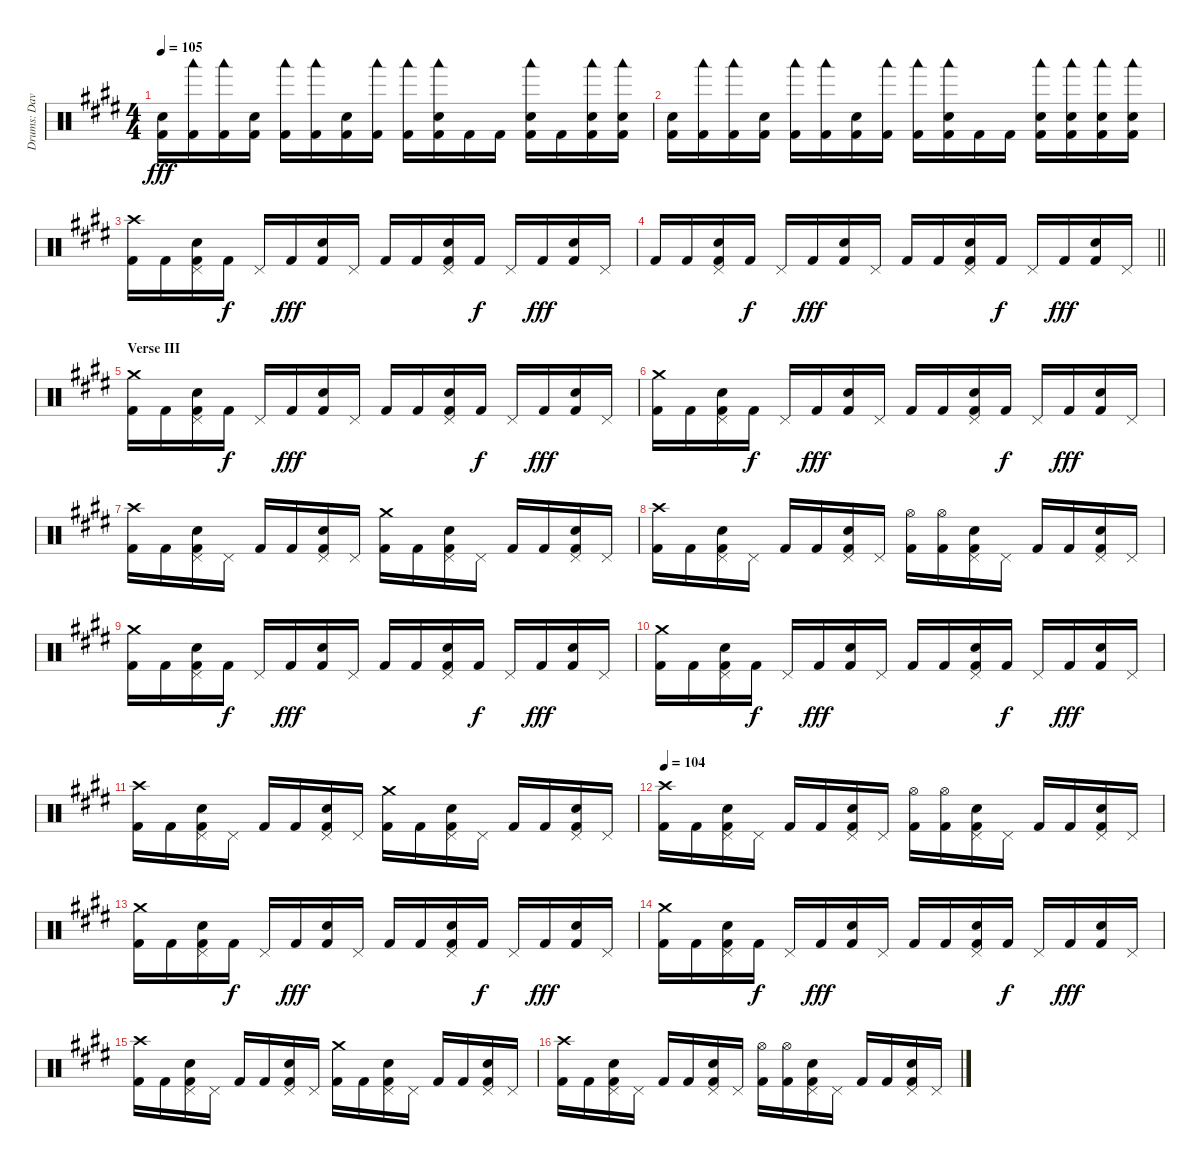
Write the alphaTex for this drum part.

\track ("Drums: Dave" "Drums: Dav") {instrument percussion}
\staff {score}
\articulation defaults
\ts (4 4)
\tempo 105
\clef neutral
\ks e
("Snare (hit) 2" "Kick (hit) 2").16{dy fff} ("Woodblock low (hit)" "Kick (hit) 2").16 ("Woodblock low (hit)" "Kick (hit) 2").16 ("Snare (hit) 2" "Kick (hit) 2").16 ("Woodblock low (hit)" "Kick (hit) 2").16 ("Woodblock low (hit)" "Kick (hit) 2").16 ("Snare (hit) 2" "Kick (hit) 2").16 ("Woodblock low (hit)" "Kick (hit) 2").16 ("Woodblock low (hit)" "Kick (hit) 2").16 ("Woodblock low (hit)" "Snare (hit) 2" "Kick (hit) 2").16 "Kick (hit) 2".16 "Kick (hit) 2".16 ("Woodblock low (hit)" "Snare (hit) 2" "Kick (hit) 2").16 "Kick (hit) 2".16 ("Woodblock low (hit)" "Snare (hit) 2" "Kick (hit) 2").16 ("Woodblock low (hit)" "Snare (hit) 2" "Kick (hit) 2").16 |
("Snare (hit) 2" "Kick (hit) 2").16 ("Woodblock low (hit)" "Kick (hit) 2").16 ("Woodblock low (hit)" "Kick (hit) 2").16 ("Snare (hit) 2" "Kick (hit) 2").16 ("Woodblock low (hit)" "Kick (hit) 2").16 ("Woodblock low (hit)" "Kick (hit) 2").16 ("Snare (hit) 2" "Kick (hit) 2").16 ("Woodblock low (hit)" "Kick (hit) 2").16 ("Woodblock low (hit)" "Kick (hit) 2").16 ("Woodblock low (hit)" "Snare (hit) 2" "Kick (hit) 2").16 "Kick (hit) 2".16 "Kick (hit) 2".16 ("Woodblock low (hit)" "Snare (hit) 2" "Kick (hit) 2").16 ("Woodblock low (hit)" "Snare (hit) 2" "Kick (hit) 2").16 ("Woodblock low (hit)" "Snare (hit) 2" "Kick (hit) 2").16 ("Woodblock low (hit)" "Snare (hit) 2" "Kick (hit) 2").16 |
("Crash high (hit)" "Kick (hit) 2").16 "Kick (hit) 2".16 ("Pedal Hi-Hat (hit)" "Snare (hit) 2" "Kick (hit) 2").16 "Kick (hit) 2".16{dy f} "Pedal Hi-Hat (hit)".16 "Kick (hit) 2".16{dy fff} ("Snare (hit) 2" "Kick (hit) 2").16 "Pedal Hi-Hat (hit)".16 "Kick (hit) 2".16 "Kick (hit) 2".16 ("Pedal Hi-Hat (hit)" "Snare (hit) 2" "Kick (hit) 2").16 "Kick (hit) 2".16{dy f} "Pedal Hi-Hat (hit)".16 "Kick (hit) 2".16{dy fff} ("Snare (hit) 2" "Kick (hit) 2").16 "Pedal Hi-Hat (hit)".16 |
\barLineRight lightlight "Kick (hit) 2".16 "Kick (hit) 2".16
("Pedal Hi-Hat (hit)" "Snare (hit) 2" "Kick (hit) 2").16 "Kick (hit) 2".16{dy f} "Pedal Hi-Hat (hit)".16 "Kick (hit) 2".16{dy fff} ("Snare (hit) 2" "Kick (hit) 2").16 "Pedal Hi-Hat (hit)".16 "Kick (hit) 2".16 "Kick (hit) 2".16 ("Pedal Hi-Hat (hit)" "Snare (hit) 2" "Kick (hit) 2").16 "Kick (hit) 2".16{dy f} "Pedal Hi-Hat (hit)".16 "Kick (hit) 2".16{dy fff} ("Snare (hit) 2" "Kick (hit) 2").16 "Pedal Hi-Hat (hit)".16 |
\section ("" "Verse III")
("Crash medium (hit)" "Kick (hit) 2").16 "Kick (hit) 2".16 ("Pedal Hi-Hat (hit)" "Snare (hit) 2" "Kick (hit) 2").16 "Kick (hit) 2".16{dy f} "Pedal Hi-Hat (hit)".16 "Kick (hit) 2".16{dy fff} ("Snare (hit) 2" "Kick (hit) 2").16 "Pedal Hi-Hat (hit)".16 "Kick (hit) 2".16 "Kick (hit) 2".16 ("Pedal Hi-Hat (hit)" "Snare (hit) 2" "Kick (hit) 2").16 "Kick (hit) 2".16{dy f} "Pedal Hi-Hat (hit)".16 "Kick (hit) 2".16{dy fff} ("Snare (hit) 2" "Kick (hit) 2").16 "Pedal Hi-Hat (hit)".16 |
("Crash medium (hit)" "Kick (hit) 2").16 "Kick (hit) 2".16 ("Pedal Hi-Hat (hit)" "Snare (hit) 2" "Kick (hit) 2").16 "Kick (hit) 2".16{dy f} "Pedal Hi-Hat (hit)".16 "Kick (hit) 2".16{dy fff} ("Snare (hit) 2" "Kick (hit) 2").16 "Pedal Hi-Hat (hit)".16 "Kick (hit) 2".16 "Kick (hit) 2".16 ("Pedal Hi-Hat (hit)" "Snare (hit) 2" "Kick (hit) 2").16 "Kick (hit) 2".16{dy f} "Pedal Hi-Hat (hit)".16 "Kick (hit) 2".16{dy fff} ("Snare (hit) 2" "Kick (hit) 2").16 "Pedal Hi-Hat (hit)".16 |
("Crash high (hit)" "Kick (hit) 2").16 "Kick (hit) 2".16 ("Pedal Hi-Hat (hit)" "Snare (hit) 2" "Kick (hit) 2").16 "Pedal Hi-Hat (hit)".16 "Kick (hit) 2".16 "Kick (hit) 2".16 ("Pedal Hi-Hat (hit)" "Snare (hit) 2" "Kick (hit) 2").16 "Pedal Hi-Hat (hit)".16 ("Crash medium (hit)" "Kick (hit) 2").16 "Kick (hit) 2".16 ("Pedal Hi-Hat (hit)" "Snare (hit) 2" "Kick (hit) 2").16 "Pedal Hi-Hat (hit)".16 "Kick (hit) 2".16 "Kick (hit) 2".16 ("Pedal Hi-Hat (hit)" "Snare (hit) 2" "Kick (hit) 2").16 "Pedal Hi-Hat (hit)".16 |
("Crash high (hit)" "Kick (hit) 2").16 "Kick (hit) 2".16 ("Pedal Hi-Hat (hit)" "Snare (hit) 2" "Kick (hit) 2").16 "Pedal Hi-Hat (hit)".16 "Kick (hit) 2".16 "Kick (hit) 2".16 ("Pedal Hi-Hat (hit)" "Snare (hit) 2" "Kick (hit) 2").16 "Pedal Hi-Hat (hit)".16 ("Hi-Hat (open)" "Kick (hit) 2").16 ("Hi-Hat (open)" "Kick (hit) 2").16 ("Pedal Hi-Hat (hit)" "Snare (hit) 2" "Kick (hit) 2").16 "Pedal Hi-Hat (hit)".16 "Kick (hit) 2".16 "Kick (hit) 2".16 ("Pedal Hi-Hat (hit)" "Snare (hit) 2" "Kick (hit) 2").16 "Pedal Hi-Hat (hit)".16 |
("Crash medium (hit)" "Kick (hit) 2").16 "Kick (hit) 2".16 ("Pedal Hi-Hat (hit)" "Snare (hit) 2" "Kick (hit) 2").16 "Kick (hit) 2".16{dy f} "Pedal Hi-Hat (hit)".16 "Kick (hit) 2".16{dy fff} ("Snare (hit) 2" "Kick (hit) 2").16 "Pedal Hi-Hat (hit)".16 "Kick (hit) 2".16 "Kick (hit) 2".16 ("Pedal Hi-Hat (hit)" "Snare (hit) 2" "Kick (hit) 2").16 "Kick (hit) 2".16{dy f} "Pedal Hi-Hat (hit)".16 "Kick (hit) 2".16{dy fff} ("Snare (hit) 2" "Kick (hit) 2").16 "Pedal Hi-Hat (hit)".16 |
("Crash medium (hit)" "Kick (hit) 2").16 "Kick (hit) 2".16 ("Pedal Hi-Hat (hit)" "Snare (hit) 2" "Kick (hit) 2").16 "Kick (hit) 2".16{dy f} "Pedal Hi-Hat (hit)".16 "Kick (hit) 2".16{dy fff} ("Snare (hit) 2" "Kick (hit) 2").16 "Pedal Hi-Hat (hit)".16 "Kick (hit) 2".16 "Kick (hit) 2".16 ("Pedal Hi-Hat (hit)" "Snare (hit) 2" "Kick (hit) 2").16 "Kick (hit) 2".16{dy f} "Pedal Hi-Hat (hit)".16 "Kick (hit) 2".16{dy fff} ("Snare (hit) 2" "Kick (hit) 2").16 "Pedal Hi-Hat (hit)".16 |
("Crash high (hit)" "Kick (hit) 2").16 "Kick (hit) 2".16 ("Pedal Hi-Hat (hit)" "Snare (hit) 2" "Kick (hit) 2").16 "Pedal Hi-Hat (hit)".16 "Kick (hit) 2".16 "Kick (hit) 2".16 ("Pedal Hi-Hat (hit)" "Snare (hit) 2" "Kick (hit) 2").16 "Pedal Hi-Hat (hit)".16 ("Crash medium (hit)" "Kick (hit) 2").16 "Kick (hit) 2".16 ("Pedal Hi-Hat (hit)" "Snare (hit) 2" "Kick (hit) 2").16 "Pedal Hi-Hat (hit)".16 "Kick (hit) 2".16 "Kick (hit) 2".16 ("Pedal Hi-Hat (hit)" "Snare (hit) 2" "Kick (hit) 2").16 "Pedal Hi-Hat (hit)".16 |
\tempo 104
("Crash high (hit)" "Kick (hit) 2").16 "Kick (hit) 2".16 ("Pedal Hi-Hat (hit)" "Snare (hit) 2" "Kick (hit) 2").16 "Pedal Hi-Hat (hit)".16 "Kick (hit) 2".16 "Kick (hit) 2".16 ("Pedal Hi-Hat (hit)" "Snare (hit) 2" "Kick (hit) 2").16 "Pedal Hi-Hat (hit)".16 ("Hi-Hat (open)" "Kick (hit) 2").16 ("Hi-Hat (open)" "Kick (hit) 2").16 ("Pedal Hi-Hat (hit)" "Snare (hit) 2" "Kick (hit) 2").16 "Pedal Hi-Hat (hit)".16 "Kick (hit) 2".16 "Kick (hit) 2".16 ("Pedal Hi-Hat (hit)" "Snare (hit) 2" "Kick (hit) 2").16 "Pedal Hi-Hat (hit)".16 |
("Crash medium (hit)" "Kick (hit) 2").16 "Kick (hit) 2".16 ("Pedal Hi-Hat (hit)" "Snare (hit) 2" "Kick (hit) 2").16 "Kick (hit) 2".16{dy f} "Pedal Hi-Hat (hit)".16 "Kick (hit) 2".16{dy fff} ("Snare (hit) 2" "Kick (hit) 2").16 "Pedal Hi-Hat (hit)".16 "Kick (hit) 2".16 "Kick (hit) 2".16 ("Pedal Hi-Hat (hit)" "Snare (hit) 2" "Kick (hit) 2").16 "Kick (hit) 2".16{dy f} "Pedal Hi-Hat (hit)".16 "Kick (hit) 2".16{dy fff} ("Snare (hit) 2" "Kick (hit) 2").16 "Pedal Hi-Hat (hit)".16 |
("Crash medium (hit)" "Kick (hit) 2").16 "Kick (hit) 2".16 ("Pedal Hi-Hat (hit)" "Snare (hit) 2" "Kick (hit) 2").16 "Kick (hit) 2".16{dy f} "Pedal Hi-Hat (hit)".16 "Kick (hit) 2".16{dy fff} ("Snare (hit) 2" "Kick (hit) 2").16 "Pedal Hi-Hat (hit)".16 "Kick (hit) 2".16 "Kick (hit) 2".16 ("Pedal Hi-Hat (hit)" "Snare (hit) 2" "Kick (hit) 2").16 "Kick (hit) 2".16{dy f} "Pedal Hi-Hat (hit)".16 "Kick (hit) 2".16{dy fff} ("Snare (hit) 2" "Kick (hit) 2").16 "Pedal Hi-Hat (hit)".16 |
("Crash high (hit)" "Kick (hit) 2").16 "Kick (hit) 2".16 ("Pedal Hi-Hat (hit)" "Snare (hit) 2" "Kick (hit) 2").16 "Pedal Hi-Hat (hit)".16 "Kick (hit) 2".16 "Kick (hit) 2".16 ("Pedal Hi-Hat (hit)" "Snare (hit) 2" "Kick (hit) 2").16 "Pedal Hi-Hat (hit)".16 ("Crash medium (hit)" "Kick (hit) 2").16 "Kick (hit) 2".16 ("Pedal Hi-Hat (hit)" "Snare (hit) 2" "Kick (hit) 2").16 "Pedal Hi-Hat (hit)".16 "Kick (hit) 2".16 "Kick (hit) 2".16 ("Pedal Hi-Hat (hit)" "Snare (hit) 2" "Kick (hit) 2").16 "Pedal Hi-Hat (hit)".16 |
("Crash high (hit)" "Kick (hit) 2").16 "Kick (hit) 2".16 ("Pedal Hi-Hat (hit)" "Snare (hit) 2" "Kick (hit) 2").16 "Pedal Hi-Hat (hit)".16 "Kick (hit) 2".16 "Kick (hit) 2".16 ("Pedal Hi-Hat (hit)" "Snare (hit) 2" "Kick (hit) 2").16 "Pedal Hi-Hat (hit)".16 ("Hi-Hat (open)" "Kick (hit) 2").16 ("Hi-Hat (open)" "Kick (hit) 2").16 ("Pedal Hi-Hat (hit)" "Snare (hit) 2" "Kick (hit) 2").16 "Pedal Hi-Hat (hit)".16 "Kick (hit) 2".16 "Kick (hit) 2".16 ("Pedal Hi-Hat (hit)" "Snare (hit) 2" "Kick (hit) 2").16 "Pedal Hi-Hat (hit)".16
